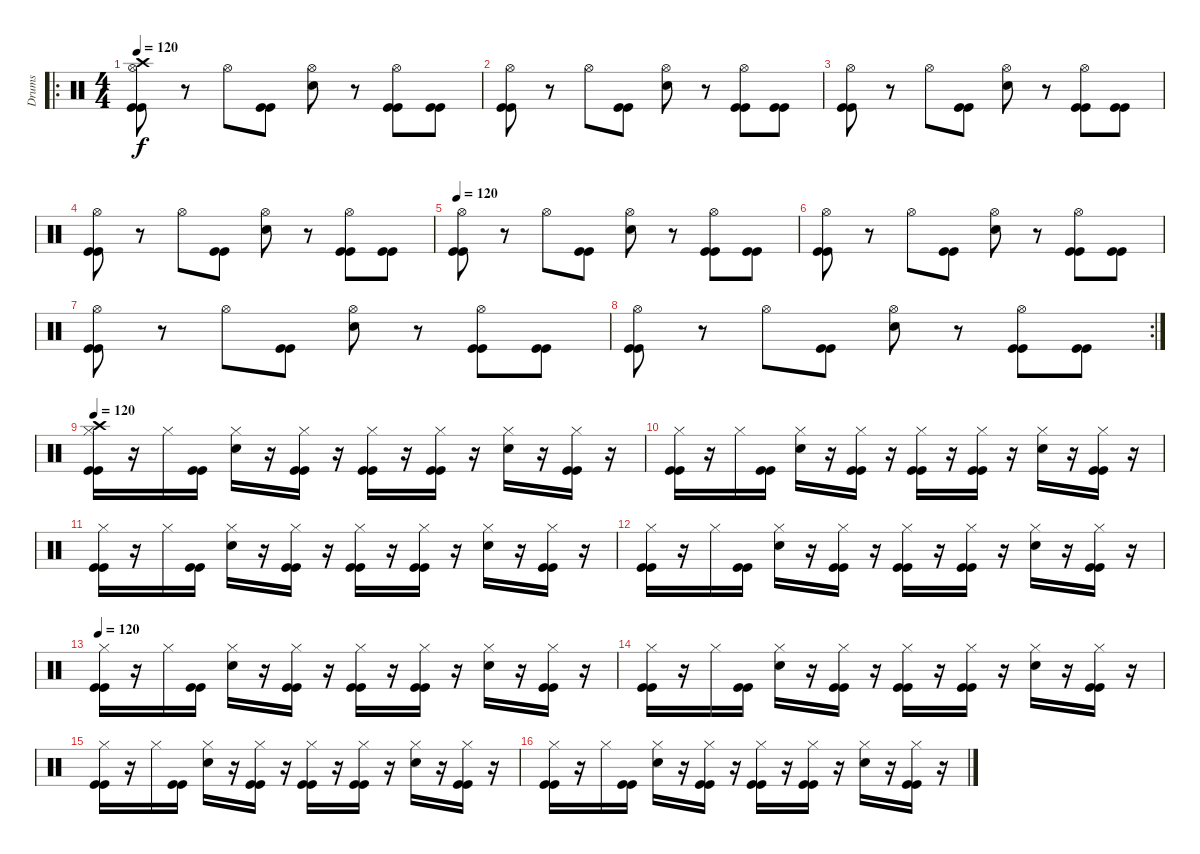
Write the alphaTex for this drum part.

\track ("Drums" "Drums") {instrument percussion}
\staff {score}
\articulation defaults
\ro
\ts (4 4)
\tempo 120
\clef neutral
\ks c
("Crash high (hit)" "Hi-Hat (open)" "Kick (hit)" "Kick (hit)").8{dy f} r.8 "Hi-Hat (open)".8 ("Kick (hit)" "Kick (hit)").8 ("Snare (hit) 2" "Hi-Hat (open)").8 r.8 ("Hi-Hat (open)" "Kick (hit)" "Kick (hit)").8 ("Kick (hit)" "Kick (hit)").8 |
("Hi-Hat (open)" "Kick (hit)" "Kick (hit)").8 r.8 "Hi-Hat (open)".8 ("Kick (hit)" "Kick (hit)").8 ("Snare (hit) 2" "Hi-Hat (open)").8 r.8 ("Hi-Hat (open)" "Kick (hit)" "Kick (hit)").8 ("Kick (hit)" "Kick (hit)").8 |
("Hi-Hat (open)" "Kick (hit)" "Kick (hit)").8 r.8 "Hi-Hat (open)".8 ("Kick (hit)" "Kick (hit)").8 ("Snare (hit) 2" "Hi-Hat (open)").8 r.8 ("Hi-Hat (open)" "Kick (hit)" "Kick (hit)").8 ("Kick (hit)" "Kick (hit)").8 |
("Hi-Hat (open)" "Kick (hit)" "Kick (hit)").8 r.8 "Hi-Hat (open)".8 ("Kick (hit)" "Kick (hit)").8 ("Snare (hit) 2" "Hi-Hat (open)").8 r.8 ("Hi-Hat (open)" "Kick (hit)" "Kick (hit)").8 ("Kick (hit)" "Kick (hit)").8 |
\tempo 120
("Hi-Hat (open)" "Kick (hit)" "Kick (hit)").8 r.8 "Hi-Hat (open)".8 ("Kick (hit)" "Kick (hit)").8 ("Snare (hit) 2" "Hi-Hat (open)").8 r.8 ("Hi-Hat (open)" "Kick (hit)" "Kick (hit)").8 ("Kick (hit)" "Kick (hit)").8 |
("Hi-Hat (open)" "Kick (hit)" "Kick (hit)").8 r.8 "Hi-Hat (open)".8 ("Kick (hit)" "Kick (hit)").8 ("Snare (hit) 2" "Hi-Hat (open)").8 r.8 ("Hi-Hat (open)" "Kick (hit)" "Kick (hit)").8 ("Kick (hit)" "Kick (hit)").8 |
("Hi-Hat (open)" "Kick (hit)" "Kick (hit)").8 r.8 "Hi-Hat (open)".8 ("Kick (hit)" "Kick (hit)").8 ("Snare (hit) 2" "Hi-Hat (open)").8 r.8 ("Hi-Hat (open)" "Kick (hit)" "Kick (hit)").8 ("Kick (hit)" "Kick (hit)").8 |
\rc 2
("Hi-Hat (open)" "Kick (hit)" "Kick (hit)").8 r.8 "Hi-Hat (open)".8 ("Kick (hit)" "Kick (hit)").8 ("Snare (hit) 2" "Hi-Hat (open)").8 r.8 ("Hi-Hat (open)" "Kick (hit)" "Kick (hit)").8 ("Kick (hit)" "Kick (hit)").8 |
\tempo 120
("Crash high (hit)" "Hi-Hat (closed)" "Kick (hit)" "Kick (hit)").16 r.16 "Hi-Hat (closed)".16 ("Kick (hit)" "Kick (hit)").16 ("Snare (hit) 2" "Hi-Hat (closed)").16 r.16 ("Hi-Hat (closed)" "Kick (hit)" "Kick (hit)").16 r.16 ("Hi-Hat (closed)" "Kick (hit)" "Kick (hit)").16 r.16 ("Hi-Hat (closed)" "Kick (hit)" "Kick (hit)").16 r.16 ("Snare (hit) 2" "Hi-Hat (closed)").16 r.16 ("Hi-Hat (closed)" "Kick (hit)" "Kick (hit)").16 r.16 |
("Hi-Hat (closed)" "Kick (hit)" "Kick (hit)").16 r.16 "Hi-Hat (closed)".16 ("Kick (hit)" "Kick (hit)").16 ("Snare (hit) 2" "Hi-Hat (closed)").16 r.16 ("Hi-Hat (closed)" "Kick (hit)" "Kick (hit)").16 r.16 ("Hi-Hat (closed)" "Kick (hit)" "Kick (hit)").16 r.16 ("Hi-Hat (closed)" "Kick (hit)" "Kick (hit)").16 r.16 ("Snare (hit) 2" "Hi-Hat (closed)").16 r.16 ("Hi-Hat (closed)" "Kick (hit)" "Kick (hit)").16 r.16 |
("Hi-Hat (closed)" "Kick (hit)" "Kick (hit)").16 r.16 "Hi-Hat (closed)".16 ("Kick (hit)" "Kick (hit)").16 ("Snare (hit) 2" "Hi-Hat (closed)").16 r.16 ("Hi-Hat (closed)" "Kick (hit)" "Kick (hit)").16 r.16 ("Hi-Hat (closed)" "Kick (hit)" "Kick (hit)").16 r.16 ("Hi-Hat (closed)" "Kick (hit)" "Kick (hit)").16 r.16 ("Snare (hit) 2" "Hi-Hat (closed)").16 r.16 ("Hi-Hat (closed)" "Kick (hit)" "Kick (hit)").16 r.16 |
("Hi-Hat (closed)" "Kick (hit)" "Kick (hit)").16 r.16 "Hi-Hat (closed)".16 ("Kick (hit)" "Kick (hit)").16 ("Snare (hit) 2" "Hi-Hat (closed)").16 r.16 ("Hi-Hat (closed)" "Kick (hit)" "Kick (hit)").16 r.16 ("Hi-Hat (closed)" "Kick (hit)" "Kick (hit)").16 r.16 ("Hi-Hat (closed)" "Kick (hit)" "Kick (hit)").16 r.16 ("Snare (hit) 2" "Hi-Hat (closed)").16 r.16 ("Hi-Hat (closed)" "Kick (hit)" "Kick (hit)").16 r.16 |
\tempo 120
("Hi-Hat (closed)" "Kick (hit)" "Kick (hit)").16 r.16 "Hi-Hat (closed)".16 ("Kick (hit)" "Kick (hit)").16 ("Snare (hit) 2" "Hi-Hat (closed)").16 r.16 ("Hi-Hat (closed)" "Kick (hit)" "Kick (hit)").16 r.16 ("Hi-Hat (closed)" "Kick (hit)" "Kick (hit)").16 r.16 ("Hi-Hat (closed)" "Kick (hit)" "Kick (hit)").16 r.16 ("Snare (hit) 2" "Hi-Hat (closed)").16 r.16 ("Hi-Hat (closed)" "Kick (hit)" "Kick (hit)").16 r.16 |
("Hi-Hat (closed)" "Kick (hit)" "Kick (hit)").16 r.16 "Hi-Hat (closed)".16 ("Kick (hit)" "Kick (hit)").16 ("Snare (hit) 2" "Hi-Hat (closed)").16 r.16 ("Hi-Hat (closed)" "Kick (hit)" "Kick (hit)").16 r.16 ("Hi-Hat (closed)" "Kick (hit)" "Kick (hit)").16 r.16 ("Hi-Hat (closed)" "Kick (hit)" "Kick (hit)").16 r.16 ("Snare (hit) 2" "Hi-Hat (closed)").16 r.16 ("Hi-Hat (closed)" "Kick (hit)" "Kick (hit)").16 r.16 |
("Hi-Hat (closed)" "Kick (hit)" "Kick (hit)").16 r.16 "Hi-Hat (closed)".16 ("Kick (hit)" "Kick (hit)").16 ("Snare (hit) 2" "Hi-Hat (closed)").16 r.16 ("Hi-Hat (closed)" "Kick (hit)" "Kick (hit)").16 r.16 ("Hi-Hat (closed)" "Kick (hit)" "Kick (hit)").16 r.16 ("Hi-Hat (closed)" "Kick (hit)" "Kick (hit)").16 r.16 ("Snare (hit) 2" "Hi-Hat (closed)").16 r.16 ("Hi-Hat (closed)" "Kick (hit)" "Kick (hit)").16 r.16 |
("Hi-Hat (closed)" "Kick (hit)" "Kick (hit)").16 r.16 "Hi-Hat (closed)".16 ("Kick (hit)" "Kick (hit)").16 ("Snare (hit) 2" "Hi-Hat (closed)").16 r.16 ("Hi-Hat (closed)" "Kick (hit)" "Kick (hit)").16 r.16 ("Hi-Hat (closed)" "Kick (hit)" "Kick (hit)").16 r.16 ("Hi-Hat (closed)" "Kick (hit)" "Kick (hit)").16 r.16 ("Snare (hit) 2" "Hi-Hat (closed)").16 r.16 ("Hi-Hat (closed)" "Kick (hit)" "Kick (hit)").16 r.16
